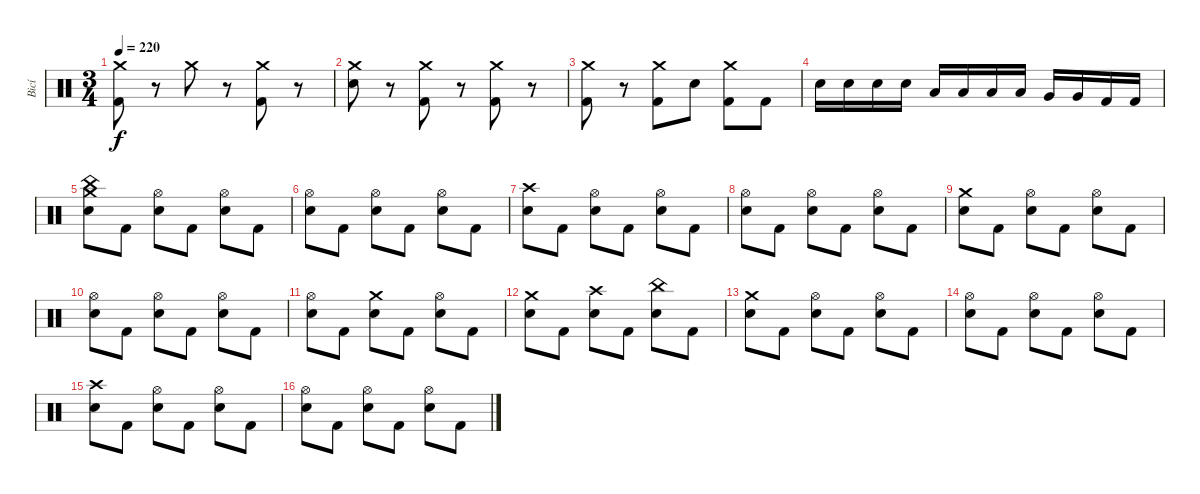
\track ("Bicí" "Bicí") {instrument percussion}
\staff {score}
\articulation defaults
\ts (3 4)
\tempo 220
\clef neutral
\ks c
("Crash medium (hit)" "Kick (hit) 2").8{dy f} r.8 "Crash medium (hit)".8 r.8 ("Crash medium (hit)" "Kick (hit) 2").8 r.8 |
("Crash medium (hit)" "Electric Snare (hit)").8 r.8 ("Crash medium (hit)" "Kick (hit) 2").8 r.8 ("Crash medium (hit)" "Kick (hit) 2").8 r.8 |
("Crash medium (hit)" "Kick (hit) 2").8 r.8 ("Crash medium (hit)" "Kick (hit) 2").8 "Electric Snare (hit)".8 ("Crash medium (hit)" "Kick (hit) 2").8 "Kick (hit) 2".8 |
"Electric Snare (hit)".16 "Electric Snare (hit)".16 "Electric Snare (hit)".16 "Electric Snare (hit)".16 "Low Tom (hit)".16 "Low Tom (hit)".16 "Low Tom (hit)".16 "Low Tom (hit)".16 "Very Low Tom (hit)".16 "Very Low Tom (hit)".16 "Kick (hit) 2".16 "Kick (hit) 2".16 |
("Crash medium (hit)" "China (hit)" "Electric Snare (hit)").8 "Kick (hit) 2".8 ("Hi-Hat (open)" "Electric Snare (hit)").8 "Kick (hit) 2".8 ("Hi-Hat (open)" "Electric Snare (hit)").8 "Kick (hit) 2".8 |
("Hi-Hat (open)" "Electric Snare (hit)").8 "Kick (hit) 2".8 ("Hi-Hat (open)" "Electric Snare (hit)").8 "Kick (hit) 2".8 ("Hi-Hat (open)" "Electric Snare (hit)").8 "Kick (hit) 2".8 |
("Crash high (hit)" "Electric Snare (hit)").8 "Kick (hit) 2".8 ("Hi-Hat (open)" "Electric Snare (hit)").8 "Kick (hit) 2".8 ("Hi-Hat (open)" "Electric Snare (hit)").8 "Kick (hit) 2".8 |
("Hi-Hat (open)" "Electric Snare (hit)").8 "Kick (hit) 2".8 ("Hi-Hat (open)" "Electric Snare (hit)").8 "Kick (hit) 2".8 ("Hi-Hat (open)" "Electric Snare (hit)").8 "Kick (hit) 2".8 |
("Crash medium (hit)" "Electric Snare (hit)").8 "Kick (hit) 2".8 ("Hi-Hat (open)" "Electric Snare (hit)").8 "Kick (hit) 2".8 ("Hi-Hat (open)" "Electric Snare (hit)").8 "Kick (hit) 2".8 |
("Hi-Hat (open)" "Electric Snare (hit)").8 "Kick (hit) 2".8 ("Hi-Hat (open)" "Electric Snare (hit)").8 "Kick (hit) 2".8 ("Hi-Hat (open)" "Electric Snare (hit)").8 "Kick (hit) 2".8 |
("Hi-Hat (open)" "Electric Snare (hit)").8 "Kick (hit) 2".8 ("Crash medium (hit)" "Electric Snare (hit)").8 "Kick (hit) 2".8 ("Hi-Hat (open)" "Electric Snare (hit)").8 "Kick (hit) 2".8 |
("Crash medium (hit)" "Electric Snare (hit)").8 "Kick (hit) 2".8 ("Crash high (hit)" "Electric Snare (hit)").8 "Kick (hit) 2".8 ("China (hit)" "Electric Snare (hit)").8 "Kick (hit) 2".8 |
("Crash medium (hit)" "Electric Snare (hit)").8 "Kick (hit) 2".8 ("Hi-Hat (open)" "Electric Snare (hit)").8 "Kick (hit) 2".8 ("Hi-Hat (open)" "Electric Snare (hit)").8 "Kick (hit) 2".8 |
("Hi-Hat (open)" "Electric Snare (hit)").8 "Kick (hit) 2".8 ("Hi-Hat (open)" "Electric Snare (hit)").8 "Kick (hit) 2".8 ("Hi-Hat (open)" "Electric Snare (hit)").8 "Kick (hit) 2".8 |
("Crash high (hit)" "Electric Snare (hit)").8 "Kick (hit) 2".8 ("Hi-Hat (open)" "Electric Snare (hit)").8 "Kick (hit) 2".8 ("Hi-Hat (open)" "Electric Snare (hit)").8 "Kick (hit) 2".8 |
("Hi-Hat (open)" "Electric Snare (hit)").8 "Kick (hit) 2".8 ("Hi-Hat (open)" "Electric Snare (hit)").8 "Kick (hit) 2".8 ("Hi-Hat (open)" "Electric Snare (hit)").8 "Kick (hit) 2".8
